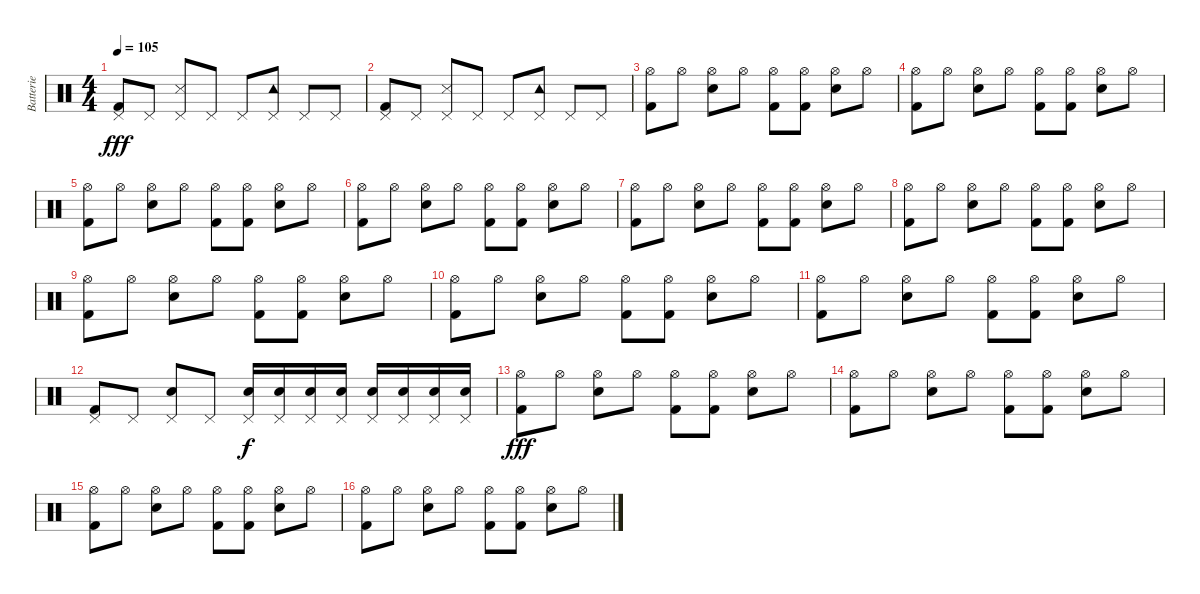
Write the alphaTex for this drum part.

\track ("Batterie" "Batterie") {instrument percussion}
\staff {score}
\articulation defaults
\ts (4 4)
\tempo 105
\clef neutral
\ks c
("Pedal Hi-Hat (hit)" "Kick (hit) 2").8{dy fff} "Pedal Hi-Hat (hit)".8 ("Pedal Hi-Hat (hit)" "Snare (side stick) 3").8 "Pedal Hi-Hat (hit)".8 "Pedal Hi-Hat (hit)".8 ("Pedal Hi-Hat (hit)" "Tambourine (hit)").8 "Pedal Hi-Hat (hit)".8 "Pedal Hi-Hat (hit)".8 |
("Pedal Hi-Hat (hit)" "Kick (hit) 2").8 "Pedal Hi-Hat (hit)".8 ("Pedal Hi-Hat (hit)" "Snare (side stick) 3").8 "Pedal Hi-Hat (hit)".8 "Pedal Hi-Hat (hit)".8 ("Pedal Hi-Hat (hit)" "Tambourine (hit)").8 "Pedal Hi-Hat (hit)".8 "Pedal Hi-Hat (hit)".8 |
("Hi-Hat (open)" "Kick (hit) 2").8 "Hi-Hat (open)".8 ("Hi-Hat (open)" "Electric Snare (hit)").8 "Hi-Hat (open)".8 ("Hi-Hat (open)" "Kick (hit) 2").8 ("Hi-Hat (open)" "Kick (hit) 2").8 ("Hi-Hat (open)" "Electric Snare (hit)").8 "Hi-Hat (open)".8 |
("Hi-Hat (open)" "Kick (hit) 2").8 "Hi-Hat (open)".8 ("Hi-Hat (open)" "Electric Snare (hit)").8 "Hi-Hat (open)".8 ("Hi-Hat (open)" "Kick (hit) 2").8 ("Hi-Hat (open)" "Kick (hit) 2").8 ("Hi-Hat (open)" "Electric Snare (hit)").8 "Hi-Hat (open)".8 |
("Hi-Hat (open)" "Kick (hit) 2").8 "Hi-Hat (open)".8 ("Hi-Hat (open)" "Electric Snare (hit)").8 "Hi-Hat (open)".8 ("Hi-Hat (open)" "Kick (hit) 2").8 ("Hi-Hat (open)" "Kick (hit) 2").8 ("Hi-Hat (open)" "Electric Snare (hit)").8 "Hi-Hat (open)".8 |
("Hi-Hat (open)" "Kick (hit) 2").8 "Hi-Hat (open)".8 ("Hi-Hat (open)" "Electric Snare (hit)").8 "Hi-Hat (open)".8 ("Hi-Hat (open)" "Kick (hit) 2").8 ("Hi-Hat (open)" "Kick (hit) 2").8 ("Hi-Hat (open)" "Electric Snare (hit)").8 "Hi-Hat (open)".8 |
("Hi-Hat (open)" "Kick (hit) 2").8 "Hi-Hat (open)".8 ("Hi-Hat (open)" "Electric Snare (hit)").8 "Hi-Hat (open)".8 ("Hi-Hat (open)" "Kick (hit) 2").8 ("Hi-Hat (open)" "Kick (hit) 2").8 ("Hi-Hat (open)" "Electric Snare (hit)").8 "Hi-Hat (open)".8 |
("Hi-Hat (open)" "Kick (hit) 2").8 "Hi-Hat (open)".8 ("Hi-Hat (open)" "Electric Snare (hit)").8 "Hi-Hat (open)".8 ("Hi-Hat (open)" "Kick (hit) 2").8 ("Hi-Hat (open)" "Kick (hit) 2").8 ("Hi-Hat (open)" "Electric Snare (hit)").8 "Hi-Hat (open)".8 |
("Hi-Hat (open)" "Kick (hit) 2").8 "Hi-Hat (open)".8 ("Hi-Hat (open)" "Electric Snare (hit)").8 "Hi-Hat (open)".8 ("Hi-Hat (open)" "Kick (hit) 2").8 ("Hi-Hat (open)" "Kick (hit) 2").8 ("Hi-Hat (open)" "Electric Snare (hit)").8 "Hi-Hat (open)".8 |
("Hi-Hat (open)" "Kick (hit) 2").8 "Hi-Hat (open)".8 ("Hi-Hat (open)" "Electric Snare (hit)").8 "Hi-Hat (open)".8 ("Hi-Hat (open)" "Kick (hit) 2").8 ("Hi-Hat (open)" "Kick (hit) 2").8 ("Hi-Hat (open)" "Electric Snare (hit)").8 "Hi-Hat (open)".8 |
("Hi-Hat (open)" "Kick (hit) 2").8 "Hi-Hat (open)".8 ("Hi-Hat (open)" "Electric Snare (hit)").8 "Hi-Hat (open)".8 ("Hi-Hat (open)" "Kick (hit) 2").8 ("Hi-Hat (open)" "Kick (hit) 2").8 ("Hi-Hat (open)" "Electric Snare (hit)").8 "Hi-Hat (open)".8 |
("Pedal Hi-Hat (hit)" "Kick (hit) 2").8 "Pedal Hi-Hat (hit)".8 ("Pedal Hi-Hat (hit)" "Electric Snare (hit)").8 "Pedal Hi-Hat (hit)".8 ("Pedal Hi-Hat (hit)" "Electric Snare (hit)").16{dy f} ("Pedal Hi-Hat (hit)" "Snare (hit) 2").16 ("Pedal Hi-Hat (hit)" "Electric Snare (hit)").16 ("Pedal Hi-Hat (hit)" "Snare (hit) 2").16 ("Pedal Hi-Hat (hit)" "Electric Snare (hit)").16 ("Pedal Hi-Hat (hit)" "Snare (hit) 2").16 ("Pedal Hi-Hat (hit)" "Electric Snare (hit)").16 ("Pedal Hi-Hat (hit)" "Snare (hit) 2").16 |
("Hi-Hat (open)" "Kick (hit) 2").8{dy fff} "Hi-Hat (open)".8 ("Hi-Hat (open)" "Electric Snare (hit)").8 "Hi-Hat (open)".8 ("Hi-Hat (open)" "Kick (hit) 2").8 ("Hi-Hat (open)" "Kick (hit) 2").8 ("Hi-Hat (open)" "Electric Snare (hit)").8 "Hi-Hat (open)".8 |
("Hi-Hat (open)" "Kick (hit) 2").8 "Hi-Hat (open)".8 ("Hi-Hat (open)" "Electric Snare (hit)").8 "Hi-Hat (open)".8 ("Hi-Hat (open)" "Kick (hit) 2").8 ("Hi-Hat (open)" "Kick (hit) 2").8 ("Hi-Hat (open)" "Electric Snare (hit)").8 "Hi-Hat (open)".8 |
("Hi-Hat (open)" "Kick (hit) 2").8 "Hi-Hat (open)".8 ("Hi-Hat (open)" "Electric Snare (hit)").8 "Hi-Hat (open)".8 ("Hi-Hat (open)" "Kick (hit) 2").8 ("Hi-Hat (open)" "Kick (hit) 2").8 ("Hi-Hat (open)" "Electric Snare (hit)").8 "Hi-Hat (open)".8 |
("Hi-Hat (open)" "Kick (hit) 2").8 "Hi-Hat (open)".8 ("Hi-Hat (open)" "Electric Snare (hit)").8 "Hi-Hat (open)".8 ("Hi-Hat (open)" "Kick (hit) 2").8 ("Hi-Hat (open)" "Kick (hit) 2").8 ("Hi-Hat (open)" "Electric Snare (hit)").8 "Hi-Hat (open)".8
